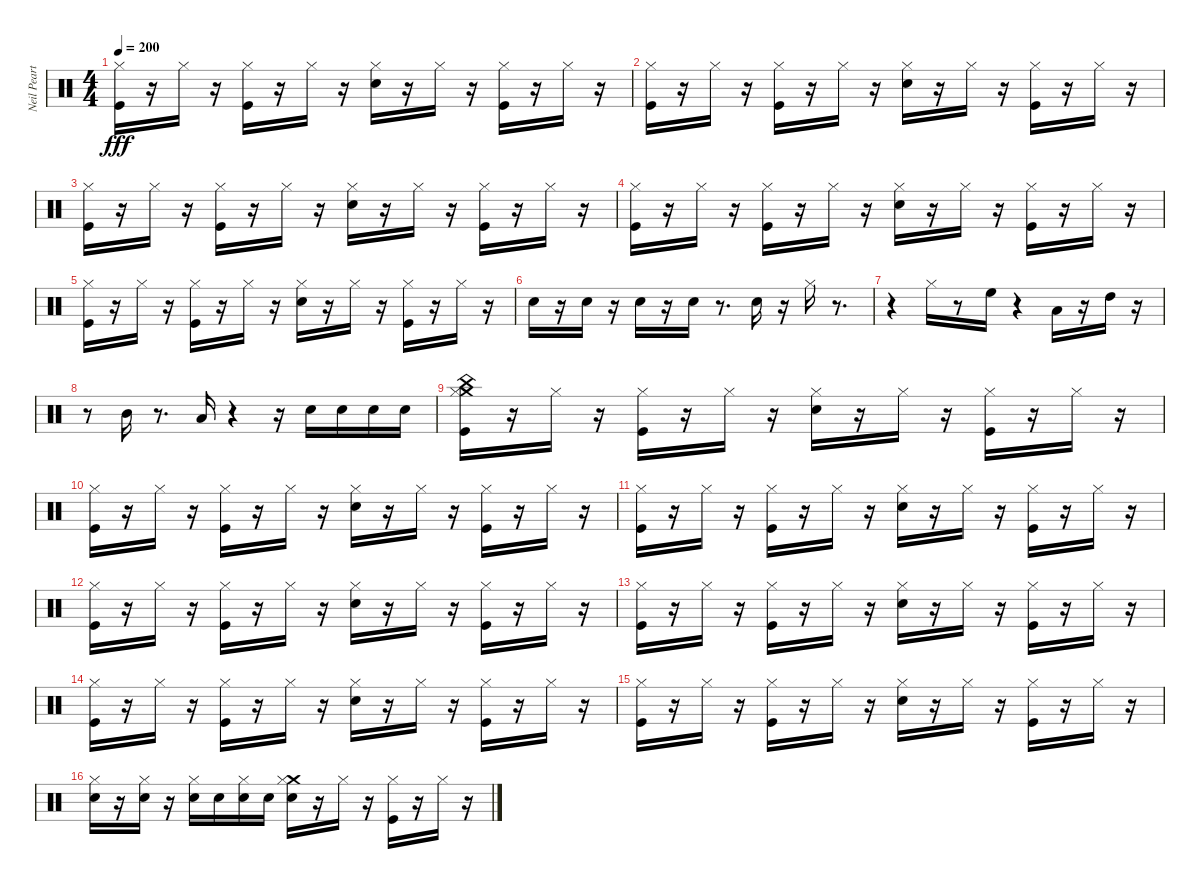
\track ("Neil Peart" "Neil Peart") {instrument percussion}
\staff {score}
\articulation defaults
\ts (4 4)
\tempo 200
\clef neutral
\ks c
("Hi-Hat (closed)" "Kick (hit)").16{dy fff} r.16 "Hi-Hat (closed)".16 r.16 ("Hi-Hat (closed)" "Kick (hit)").16 r.16 "Hi-Hat (closed)".16 r.16 ("Hi-Hat (closed)" "Snare (hit) 2").16 r.16 "Hi-Hat (closed)".16 r.16 ("Hi-Hat (closed)" "Kick (hit)").16 r.16 "Hi-Hat (closed)".16 r.16 |
("Hi-Hat (closed)" "Kick (hit)").16 r.16 "Hi-Hat (closed)".16 r.16 ("Hi-Hat (closed)" "Kick (hit)").16 r.16 "Hi-Hat (closed)".16 r.16 ("Hi-Hat (closed)" "Snare (hit) 2").16 r.16 "Hi-Hat (closed)".16 r.16 ("Hi-Hat (closed)" "Kick (hit)").16 r.16 "Hi-Hat (closed)".16 r.16 |
("Hi-Hat (closed)" "Kick (hit)").16 r.16 "Hi-Hat (closed)".16 r.16 ("Hi-Hat (closed)" "Kick (hit)").16 r.16 "Hi-Hat (closed)".16 r.16 ("Hi-Hat (closed)" "Snare (hit) 2").16 r.16 "Hi-Hat (closed)".16 r.16 ("Hi-Hat (closed)" "Kick (hit)").16 r.16 "Hi-Hat (closed)".16 r.16 |
("Hi-Hat (closed)" "Kick (hit)").16 r.16 "Hi-Hat (closed)".16 r.16 ("Hi-Hat (closed)" "Kick (hit)").16 r.16 "Hi-Hat (closed)".16 r.16 ("Hi-Hat (closed)" "Snare (hit) 2").16 r.16 "Hi-Hat (closed)".16 r.16 ("Hi-Hat (closed)" "Kick (hit)").16 r.16 "Hi-Hat (closed)".16 r.16 |
("Hi-Hat (closed)" "Kick (hit)").16 r.16 "Hi-Hat (closed)".16 r.16 ("Hi-Hat (closed)" "Kick (hit)").16 r.16 "Hi-Hat (closed)".16 r.16 ("Hi-Hat (closed)" "Snare (hit) 2").16 r.16 "Hi-Hat (closed)".16 r.16 ("Hi-Hat (closed)" "Kick (hit)").16 r.16 "Hi-Hat (closed)".16 r.16 |
"Electric Snare (hit)".16 r.16 "Electric Snare (hit)".16 r.16 "Electric Snare (hit)".16 r.16 "Electric Snare (hit)".16 r.8{d} "Electric Snare (hit)".16 r.16 "Hi-Hat (closed)".16 r.8{d} |
r.4 "Hi-Hat (closed)".16 r.8 "High Floor Tom (hit)".16 r.4 "Low Tom (hit)".16 r.16 "High Tom (hit)".16 r.16 |
r.8 "Mid Tom (hit)".16 r.8{d} "Low Floor Tom (hit)".16 r.4 r.16 "Electric Snare (hit)".16 "Electric Snare (hit)".16 "Electric Snare (hit)".16 "Electric Snare (hit)".16 |
("Crash medium (hit)" "China (hit)" "Hi-Hat (closed)" "Kick (hit)").16 r.16 "Hi-Hat (closed)".16 r.16 ("Hi-Hat (closed)" "Kick (hit)").16 r.16 "Hi-Hat (closed)".16 r.16 ("Hi-Hat (closed)" "Snare (hit) 2").16 r.16 "Hi-Hat (closed)".16 r.16 ("Hi-Hat (closed)" "Kick (hit)").16 r.16 "Hi-Hat (closed)".16 r.16 |
("Hi-Hat (closed)" "Kick (hit)").16 r.16 "Hi-Hat (closed)".16 r.16 ("Hi-Hat (closed)" "Kick (hit)").16 r.16 "Hi-Hat (closed)".16 r.16 ("Hi-Hat (closed)" "Snare (hit) 2").16 r.16 "Hi-Hat (closed)".16 r.16 ("Hi-Hat (closed)" "Kick (hit)").16 r.16 "Hi-Hat (closed)".16 r.16 |
("Hi-Hat (closed)" "Kick (hit)").16 r.16 "Hi-Hat (closed)".16 r.16 ("Hi-Hat (closed)" "Kick (hit)").16 r.16 "Hi-Hat (closed)".16 r.16 ("Hi-Hat (closed)" "Snare (hit) 2").16 r.16 "Hi-Hat (closed)".16 r.16 ("Hi-Hat (closed)" "Kick (hit)").16 r.16 "Hi-Hat (closed)".16 r.16 |
("Hi-Hat (closed)" "Kick (hit)").16 r.16 "Hi-Hat (closed)".16 r.16 ("Hi-Hat (closed)" "Kick (hit)").16 r.16 "Hi-Hat (closed)".16 r.16 ("Hi-Hat (closed)" "Snare (hit) 2").16 r.16 "Hi-Hat (closed)".16 r.16 ("Hi-Hat (closed)" "Kick (hit)").16 r.16 "Hi-Hat (closed)".16 r.16 |
("Hi-Hat (closed)" "Kick (hit)").16 r.16 "Hi-Hat (closed)".16 r.16 ("Hi-Hat (closed)" "Kick (hit)").16 r.16 "Hi-Hat (closed)".16 r.16 ("Hi-Hat (closed)" "Snare (hit) 2").16 r.16 "Hi-Hat (closed)".16 r.16 ("Hi-Hat (closed)" "Kick (hit)").16 r.16 "Hi-Hat (closed)".16 r.16 |
("Hi-Hat (closed)" "Kick (hit)").16 r.16 "Hi-Hat (closed)".16 r.16 ("Hi-Hat (closed)" "Kick (hit)").16 r.16 "Hi-Hat (closed)".16 r.16 ("Hi-Hat (closed)" "Snare (hit) 2").16 r.16 "Hi-Hat (closed)".16 r.16 ("Hi-Hat (closed)" "Kick (hit)").16 r.16 "Hi-Hat (closed)".16 r.16 |
("Hi-Hat (closed)" "Kick (hit)").16 r.16 "Hi-Hat (closed)".16 r.16 ("Hi-Hat (closed)" "Kick (hit)").16 r.16 "Hi-Hat (closed)".16 r.16 ("Hi-Hat (closed)" "Snare (hit) 2").16 r.16 "Hi-Hat (closed)".16 r.16 ("Hi-Hat (closed)" "Kick (hit)").16 r.16 "Hi-Hat (closed)".16 r.16 |
("Hi-Hat (closed)" "Snare (hit) 2").16 r.16 ("Hi-Hat (closed)" "Snare (hit) 2").16 r.16 ("Hi-Hat (closed)" "Snare (hit) 2").16 "Snare (hit) 2".16 ("Hi-Hat (closed)" "Snare (hit) 2").16 "Snare (hit) 2".16 ("Crash medium (hit)" "Hi-Hat (closed)" "Snare (hit) 2").16 r.16 "Hi-Hat (closed)".16 r.16 ("Hi-Hat (closed)" "Kick (hit)").16 r.16 "Hi-Hat (closed)".16 r.16
